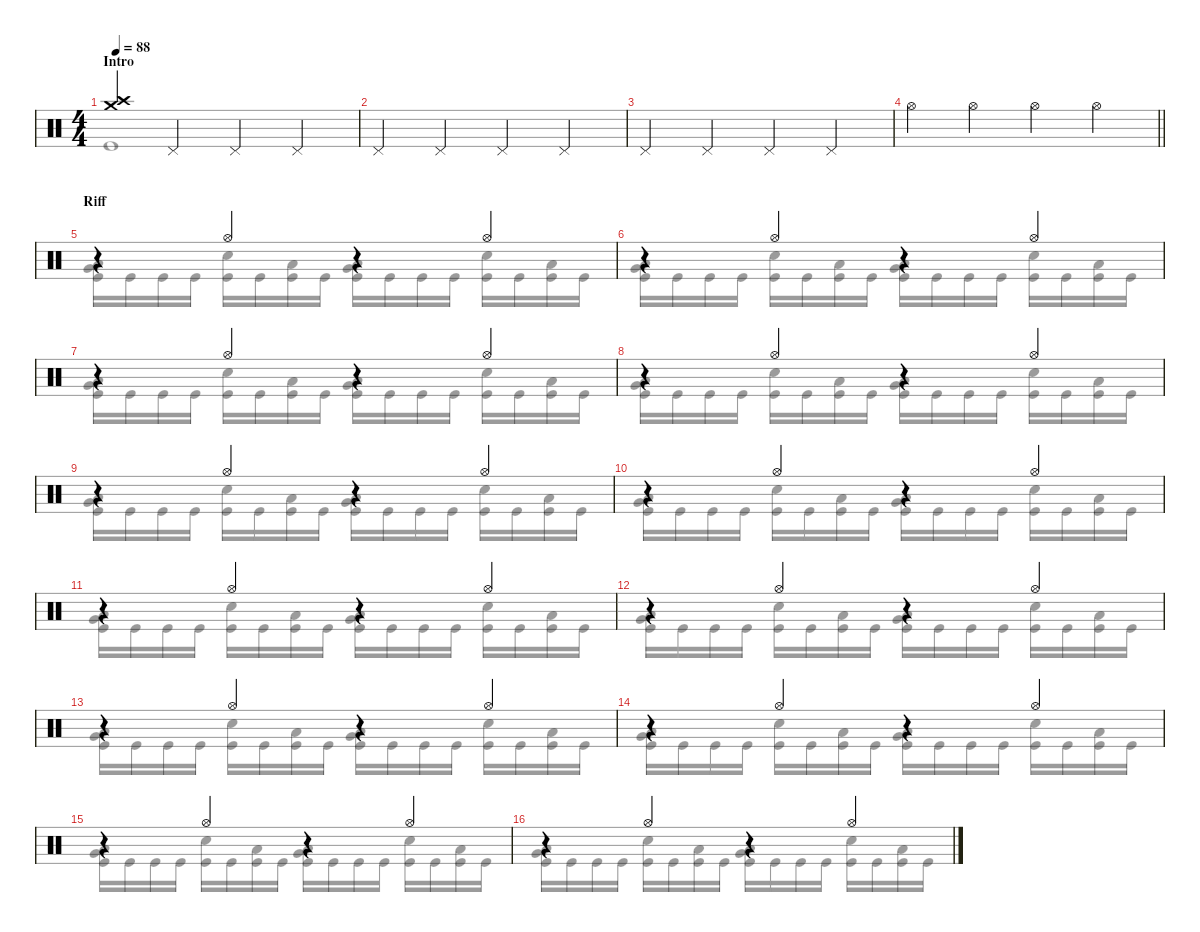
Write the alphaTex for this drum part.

\defaultSystemsLayout 4
\hideDynamics
\bracketExtendMode nobrackets
\singleTrackTrackNamePolicy hidden
\multiTrackTrackNamePolicy hidden
\firstSystemTrackNameMode fullname
\otherSystemsTrackNameOrientation horizontal
\track ("Drums" "drm.") {instrument percussion}
\staff {score}
\articulation defaults
\voice
\ts (4 4)
\beaming (8 2 2 2 2)
\section ("" "Intro")
\tempo 88
\clef neutral
\ks c
("Crash medium (hit)" "Crash high (hit)").4{dy f beam Up} "Pedal Hi-Hat (hit)".4{beam Up} "Pedal Hi-Hat (hit)".4{beam Up} "Pedal Hi-Hat (hit)".4{beam Up} |
"Pedal Hi-Hat (hit)".4{beam Up} "Pedal Hi-Hat (hit)".4{beam Up} "Pedal Hi-Hat (hit)".4{beam Up} "Pedal Hi-Hat (hit)".4{beam Up} |
"Pedal Hi-Hat (hit)".4{beam Up} "Pedal Hi-Hat (hit)".4{beam Up} "Pedal Hi-Hat (hit)".4{beam Up} "Pedal Hi-Hat (hit)".4{beam Up} |
\barLineRight lightlight "Hi-Hat (open)".4{beam Down} "Hi-Hat (open)".4{beam Down} "Hi-Hat (open)".4{beam Down} "Hi-Hat (open)".4{beam Down}
|
\section ("" "Riff")
r.4{beam Up} "Hi-Hat (open)".4{beam Up} r.4{beam Up} "Hi-Hat (open)".4{beam Up} |
r.4{beam Up} "Hi-Hat (open)".4{beam Up} r.4{beam Up} "Hi-Hat (open)".4{beam Up} |
r.4{beam Up} "Hi-Hat (open)".4{beam Up} r.4{beam Up} "Hi-Hat (open)".4{beam Up} |
r.4{beam Up} "Hi-Hat (open)".4{beam Up} r.4{beam Up} "Hi-Hat (open)".4{beam Up} |
r.4{beam Up} "Hi-Hat (open)".4{beam Up} r.4{beam Up} "Hi-Hat (open)".4{beam Up} |
r.4{beam Up} "Hi-Hat (open)".4{beam Up} r.4{beam Up} "Hi-Hat (open)".4{beam Up} |
r.4{beam Up} "Hi-Hat (open)".4{beam Up} r.4{beam Up} "Hi-Hat (open)".4{beam Up} |
r.4{beam Up} "Hi-Hat (open)".4{beam Up} r.4{beam Up} "Hi-Hat (open)".4{beam Up} |
r.4{beam Up} "Hi-Hat (open)".4{beam Up} r.4{beam Up} "Hi-Hat (open)".4{beam Up} |
r.4{beam Up} "Hi-Hat (open)".4{beam Up} r.4{beam Up} "Hi-Hat (open)".4{beam Up} |
r.4{beam Up} "Hi-Hat (open)".4{beam Up} r.4{beam Up} "Hi-Hat (open)".4{beam Up} |
r.4{beam Up} "Hi-Hat (open)".4{beam Up} r.4{beam Up} "Hi-Hat (open)".4{beam Up}
\voice
\clef neutral
\ottava regular
\simile none
\ks c "Kick (hit)".1{dy f beam Down}
|
|
|
\barLineRight lightlight
|
("Very Low Tom (hit)" "Low Floor Tom (hit)" "Kick (hit)").16{beam Down} "Kick (hit)".16{beam Down} "Kick (hit)".16{beam Down} "Kick (hit)".16{beam Down} ("Snare (hit) 2" "Kick (hit)").16{beam Down} "Kick (hit)".16{beam Down} ("Low Tom (hit)" "Kick (hit)").16{beam Down} "Kick (hit)".16{beam Down} ("Very Low Tom (hit)" "Low Floor Tom (hit)" "Kick (hit)").16{beam Down} "Kick (hit)".16{beam Down} "Kick (hit)".16{beam Down} "Kick (hit)".16{beam Down} ("Snare (hit) 2" "Kick (hit)").16{beam Down} "Kick (hit)".16{beam Down} ("Low Tom (hit)" "Kick (hit)").16{beam Down} "Kick (hit)".16{beam Down} |
("Very Low Tom (hit)" "Low Floor Tom (hit)" "Kick (hit)").16{beam Down} "Kick (hit)".16{beam Down} "Kick (hit)".16{beam Down} "Kick (hit)".16{beam Down} ("Snare (hit) 2" "Kick (hit)").16{beam Down} "Kick (hit)".16{beam Down} ("Low Tom (hit)" "Kick (hit)").16{beam Down} "Kick (hit)".16{beam Down} ("Very Low Tom (hit)" "Low Floor Tom (hit)" "Kick (hit)").16{beam Down} "Kick (hit)".16{beam Down} "Kick (hit)".16{beam Down} "Kick (hit)".16{beam Down} ("Snare (hit) 2" "Kick (hit)").16{beam Down} "Kick (hit)".16{beam Down} ("Low Tom (hit)" "Kick (hit)").16{beam Down} "Kick (hit)".16{beam Down} |
("Very Low Tom (hit)" "Low Floor Tom (hit)" "Kick (hit)").16{beam Down} "Kick (hit)".16{beam Down} "Kick (hit)".16{beam Down} "Kick (hit)".16{beam Down} ("Snare (hit) 2" "Kick (hit)").16{beam Down} "Kick (hit)".16{beam Down} ("Low Tom (hit)" "Kick (hit)").16{beam Down} "Kick (hit)".16{beam Down} ("Very Low Tom (hit)" "Low Floor Tom (hit)" "Kick (hit)").16{beam Down} "Kick (hit)".16{beam Down} "Kick (hit)".16{beam Down} "Kick (hit)".16{beam Down} ("Snare (hit) 2" "Kick (hit)").16{beam Down} "Kick (hit)".16{beam Down} ("Low Tom (hit)" "Kick (hit)").16{beam Down} "Kick (hit)".16{beam Down} |
("Very Low Tom (hit)" "Low Floor Tom (hit)" "Kick (hit)").16{beam Down} "Kick (hit)".16{beam Down} "Kick (hit)".16{beam Down} "Kick (hit)".16{beam Down} ("Snare (hit) 2" "Kick (hit)").16{beam Down} "Kick (hit)".16{beam Down} ("Low Tom (hit)" "Kick (hit)").16{beam Down} "Kick (hit)".16{beam Down} ("Very Low Tom (hit)" "Low Floor Tom (hit)" "Kick (hit)").16{beam Down} "Kick (hit)".16{beam Down} "Kick (hit)".16{beam Down} "Kick (hit)".16{beam Down} ("Snare (hit) 2" "Kick (hit)").16{beam Down} "Kick (hit)".16{beam Down} ("Low Tom (hit)" "Kick (hit)").16{beam Down} "Kick (hit)".16{beam Down} |
("Very Low Tom (hit)" "Low Floor Tom (hit)" "Kick (hit)").16{beam Down} "Kick (hit)".16{beam Down} "Kick (hit)".16{beam Down} "Kick (hit)".16{beam Down} ("Snare (hit) 2" "Kick (hit)").16{beam Down} "Kick (hit)".16{beam Down} ("Low Tom (hit)" "Kick (hit)").16{beam Down} "Kick (hit)".16{beam Down} ("Very Low Tom (hit)" "Low Floor Tom (hit)" "Kick (hit)").16{beam Down} "Kick (hit)".16{beam Down} "Kick (hit)".16{beam Down} "Kick (hit)".16{beam Down} ("Snare (hit) 2" "Kick (hit)").16{beam Down} "Kick (hit)".16{beam Down} ("Low Tom (hit)" "Kick (hit)").16{beam Down} "Kick (hit)".16{beam Down} |
("Very Low Tom (hit)" "Low Floor Tom (hit)" "Kick (hit)").16{beam Down} "Kick (hit)".16{beam Down} "Kick (hit)".16{beam Down} "Kick (hit)".16{beam Down} ("Snare (hit) 2" "Kick (hit)").16{beam Down} "Kick (hit)".16{beam Down} ("Low Tom (hit)" "Kick (hit)").16{beam Down} "Kick (hit)".16{beam Down} ("Very Low Tom (hit)" "Low Floor Tom (hit)" "Kick (hit)").16{beam Down} "Kick (hit)".16{beam Down} "Kick (hit)".16{beam Down} "Kick (hit)".16{beam Down} ("Snare (hit) 2" "Kick (hit)").16{beam Down} "Kick (hit)".16{beam Down} ("Low Tom (hit)" "Kick (hit)").16{beam Down} "Kick (hit)".16{beam Down} |
("Very Low Tom (hit)" "Low Floor Tom (hit)" "Kick (hit)").16{beam Down} "Kick (hit)".16{beam Down} "Kick (hit)".16{beam Down} "Kick (hit)".16{beam Down} ("Snare (hit) 2" "Kick (hit)").16{beam Down} "Kick (hit)".16{beam Down} ("Low Tom (hit)" "Kick (hit)").16{beam Down} "Kick (hit)".16{beam Down} ("Very Low Tom (hit)" "Low Floor Tom (hit)" "Kick (hit)").16{beam Down} "Kick (hit)".16{beam Down} "Kick (hit)".16{beam Down} "Kick (hit)".16{beam Down} ("Snare (hit) 2" "Kick (hit)").16{beam Down} "Kick (hit)".16{beam Down} ("Low Tom (hit)" "Kick (hit)").16{beam Down} "Kick (hit)".16{beam Down} |
("Very Low Tom (hit)" "Low Floor Tom (hit)" "Kick (hit)").16{beam Down} "Kick (hit)".16{beam Down} "Kick (hit)".16{beam Down} "Kick (hit)".16{beam Down} ("Snare (hit) 2" "Kick (hit)").16{beam Down} "Kick (hit)".16{beam Down} ("Low Tom (hit)" "Kick (hit)").16{beam Down} "Kick (hit)".16{beam Down} ("Very Low Tom (hit)" "Low Floor Tom (hit)" "Kick (hit)").16{beam Down} "Kick (hit)".16{beam Down} "Kick (hit)".16{beam Down} "Kick (hit)".16{beam Down} ("Snare (hit) 2" "Kick (hit)").16{beam Down} "Kick (hit)".16{beam Down} ("Low Tom (hit)" "Kick (hit)").16{beam Down} "Kick (hit)".16{beam Down} |
("Very Low Tom (hit)" "Low Floor Tom (hit)" "Kick (hit)").16{beam Down} "Kick (hit)".16{beam Down} "Kick (hit)".16{beam Down} "Kick (hit)".16{beam Down} ("Snare (hit) 2" "Kick (hit)").16{beam Down} "Kick (hit)".16{beam Down} ("Low Tom (hit)" "Kick (hit)").16{beam Down} "Kick (hit)".16{beam Down} ("Very Low Tom (hit)" "Low Floor Tom (hit)" "Kick (hit)").16{beam Down} "Kick (hit)".16{beam Down} "Kick (hit)".16{beam Down} "Kick (hit)".16{beam Down} ("Snare (hit) 2" "Kick (hit)").16{beam Down} "Kick (hit)".16{beam Down} ("Low Tom (hit)" "Kick (hit)").16{beam Down} "Kick (hit)".16{beam Down} |
("Very Low Tom (hit)" "Low Floor Tom (hit)" "Kick (hit)").16{beam Down} "Kick (hit)".16{beam Down} "Kick (hit)".16{beam Down} "Kick (hit)".16{beam Down} ("Snare (hit) 2" "Kick (hit)").16{beam Down} "Kick (hit)".16{beam Down} ("Low Tom (hit)" "Kick (hit)").16{beam Down} "Kick (hit)".16{beam Down} ("Very Low Tom (hit)" "Low Floor Tom (hit)" "Kick (hit)").16{beam Down} "Kick (hit)".16{beam Down} "Kick (hit)".16{beam Down} "Kick (hit)".16{beam Down} ("Snare (hit) 2" "Kick (hit)").16{beam Down} "Kick (hit)".16{beam Down} ("Low Tom (hit)" "Kick (hit)").16{beam Down} "Kick (hit)".16{beam Down} |
("Very Low Tom (hit)" "Low Floor Tom (hit)" "Kick (hit)").16{beam Down} "Kick (hit)".16{beam Down} "Kick (hit)".16{beam Down} "Kick (hit)".16{beam Down} ("Snare (hit) 2" "Kick (hit)").16{beam Down} "Kick (hit)".16{beam Down} ("Low Tom (hit)" "Kick (hit)").16{beam Down} "Kick (hit)".16{beam Down} ("Very Low Tom (hit)" "Low Floor Tom (hit)" "Kick (hit)").16{beam Down} "Kick (hit)".16{beam Down} "Kick (hit)".16{beam Down} "Kick (hit)".16{beam Down} ("Snare (hit) 2" "Kick (hit)").16{beam Down} "Kick (hit)".16{beam Down} ("Low Tom (hit)" "Kick (hit)").16{beam Down} "Kick (hit)".16{beam Down} |
("Very Low Tom (hit)" "Low Floor Tom (hit)" "Kick (hit)").16{beam Down} "Kick (hit)".16{beam Down} "Kick (hit)".16{beam Down} "Kick (hit)".16{beam Down} ("Snare (hit) 2" "Kick (hit)").16{beam Down} "Kick (hit)".16{beam Down} ("Low Tom (hit)" "Kick (hit)").16{beam Down} "Kick (hit)".16{beam Down} ("Very Low Tom (hit)" "Low Floor Tom (hit)" "Kick (hit)").16{beam Down} "Kick (hit)".16{beam Down} "Kick (hit)".16{beam Down} "Kick (hit)".16{beam Down} ("Snare (hit) 2" "Kick (hit)").16{beam Down} "Kick (hit)".16{beam Down} ("Low Tom (hit)" "Kick (hit)").16{beam Down} "Kick (hit)".16{beam Down}
